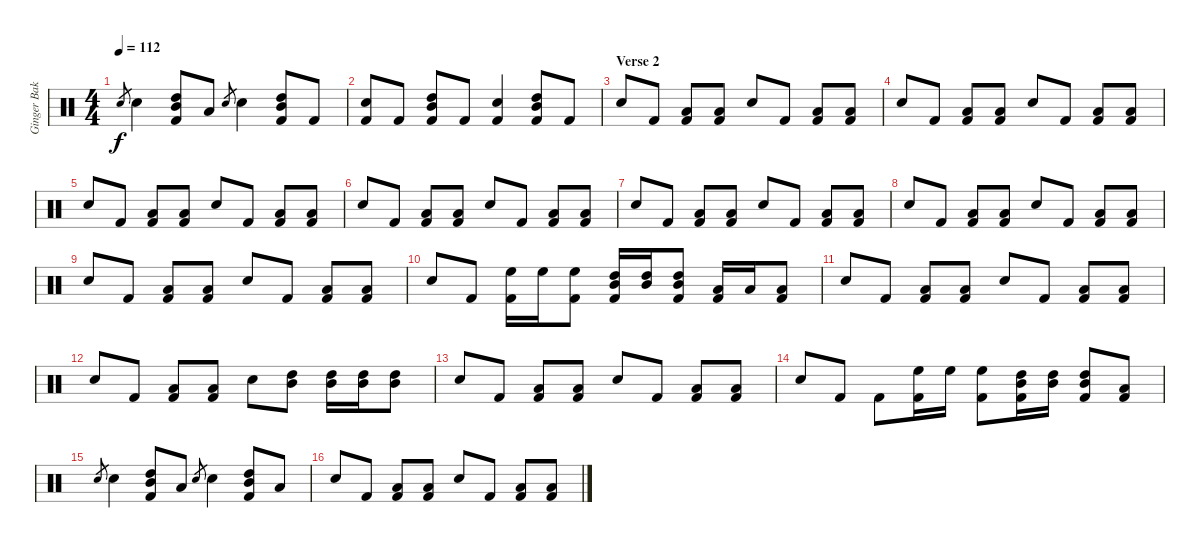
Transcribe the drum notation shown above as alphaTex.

\track ("Ginger Baker" "Ginger Bak") {instrument percussion}
\staff {score}
\articulation defaults
\ts (4 4)
\tempo 112
\clef neutral
\ks c "Snare (hit) 2".8{gr dy f} "Snare (hit) 2".4
("High Tom (hit)" "Mid Tom (hit)" "Kick (hit) 2").8 "Low Tom (hit)".8 "Snare (hit) 2".8{gr} "Snare (hit) 2".4 ("High Tom (hit)" "Mid Tom (hit)" "Kick (hit) 2").8 "Kick (hit) 2".8 |
("Snare (hit) 2" "Kick (hit) 2").8 "Kick (hit) 2".8 ("High Tom (hit)" "Mid Tom (hit)" "Kick (hit) 2").8 "Kick (hit) 2".8 ("Snare (hit) 2" "Kick (hit) 2").4 ("High Tom (hit)" "Mid Tom (hit)" "Kick (hit) 2").8 "Kick (hit) 2".8 |
\section ("" "Verse 2")
"Snare (hit) 2".8 "Kick (hit) 2".8 ("Low Tom (hit)" "Kick (hit) 2").8 ("Low Tom (hit)" "Kick (hit) 2").8 "Snare (hit) 2".8 "Kick (hit) 2".8 ("Low Tom (hit)" "Kick (hit) 2").8 ("Low Tom (hit)" "Kick (hit) 2").8 |
"Snare (hit) 2".8 "Kick (hit) 2".8 ("Low Tom (hit)" "Kick (hit) 2").8 ("Low Tom (hit)" "Kick (hit) 2").8 "Snare (hit) 2".8 "Kick (hit) 2".8 ("Low Tom (hit)" "Kick (hit) 2").8 ("Low Tom (hit)" "Kick (hit) 2").8 |
"Snare (hit) 2".8 "Kick (hit) 2".8 ("Low Tom (hit)" "Kick (hit) 2").8 ("Low Tom (hit)" "Kick (hit) 2").8 "Snare (hit) 2".8 "Kick (hit) 2".8 ("Low Tom (hit)" "Kick (hit) 2").8 ("Low Tom (hit)" "Kick (hit) 2").8 |
"Snare (hit) 2".8 "Kick (hit) 2".8 ("Low Tom (hit)" "Kick (hit) 2").8 ("Low Tom (hit)" "Kick (hit) 2").8 "Snare (hit) 2".8 "Kick (hit) 2".8 ("Low Tom (hit)" "Kick (hit) 2").8 ("Low Tom (hit)" "Kick (hit) 2").8 |
"Snare (hit) 2".8 "Kick (hit) 2".8 ("Low Tom (hit)" "Kick (hit) 2").8 ("Low Tom (hit)" "Kick (hit) 2").8 "Snare (hit) 2".8 "Kick (hit) 2".8 ("Low Tom (hit)" "Kick (hit) 2").8 ("Low Tom (hit)" "Kick (hit) 2").8 |
"Snare (hit) 2".8 "Kick (hit) 2".8 ("Low Tom (hit)" "Kick (hit) 2").8 ("Low Tom (hit)" "Kick (hit) 2").8 "Snare (hit) 2".8 "Kick (hit) 2".8 ("Low Tom (hit)" "Kick (hit) 2").8 ("Low Tom (hit)" "Kick (hit) 2").8 |
"Snare (hit) 2".8 "Kick (hit) 2".8 ("Low Tom (hit)" "Kick (hit) 2").8 ("Low Tom (hit)" "Kick (hit) 2").8 "Snare (hit) 2".8 "Kick (hit) 2".8 ("Low Tom (hit)" "Kick (hit) 2").8 ("Low Tom (hit)" "Kick (hit) 2").8 |
"Snare (hit) 2".8 "Kick (hit) 2".8 ("High Floor Tom (hit)" "Kick (hit) 2").16 "High Floor Tom (hit)".16 ("High Floor Tom (hit)" "Kick (hit) 2").8 ("High Tom (hit)" "Mid Tom (hit)" "Kick (hit) 2").16 ("High Tom (hit)" "Mid Tom (hit)").16 ("High Tom (hit)" "Mid Tom (hit)" "Kick (hit) 2").8 ("Low Tom (hit)" "Kick (hit) 2").16 "Low Tom (hit)".16 ("Low Tom (hit)" "Kick (hit) 2").8 |
"Snare (hit) 2".8 "Kick (hit) 2".8 ("Low Tom (hit)" "Kick (hit) 2").8 ("Low Tom (hit)" "Kick (hit) 2").8 "Snare (hit) 2".8 "Kick (hit) 2".8 ("Low Tom (hit)" "Kick (hit) 2").8 ("Low Tom (hit)" "Kick (hit) 2").8 |
"Snare (hit) 2".8 "Kick (hit) 2".8 ("Low Tom (hit)" "Kick (hit) 2").8 ("Low Tom (hit)" "Kick (hit) 2").8 "Snare (hit) 2".8 ("High Tom (hit)" "Mid Tom (hit)").8 ("High Tom (hit)" "Mid Tom (hit)").16 ("High Tom (hit)" "Mid Tom (hit)").16 ("High Tom (hit)" "Mid Tom (hit)").8 |
"Snare (hit) 2".8 "Kick (hit) 2".8 ("Low Tom (hit)" "Kick (hit) 2").8 ("Low Tom (hit)" "Kick (hit) 2").8 "Snare (hit) 2".8 "Kick (hit) 2".8 ("Low Tom (hit)" "Kick (hit) 2").8 ("Low Tom (hit)" "Kick (hit) 2").8 |
"Snare (hit) 2".8 "Kick (hit) 2".8 "Kick (hit) 2".8 ("High Floor Tom (hit)" "Kick (hit) 2").16 "High Floor Tom (hit)".16 ("High Floor Tom (hit)" "Kick (hit) 2").8 ("High Tom (hit)" "Mid Tom (hit)" "Kick (hit) 2").16 ("High Tom (hit)" "Mid Tom (hit)").16 ("High Tom (hit)" "Mid Tom (hit)" "Kick (hit) 2").8 ("Low Tom (hit)" "Kick (hit) 2").8 |
"Snare (hit) 2".8{gr} "Snare (hit) 2".4 ("High Tom (hit)" "Mid Tom (hit)" "Kick (hit) 2").8 "Low Tom (hit)".8 "Snare (hit) 2".8{gr} "Snare (hit) 2".4 ("High Tom (hit)" "Mid Tom (hit)" "Kick (hit) 2").8 "Low Tom (hit)".8 |
"Snare (hit) 2".8 "Kick (hit) 2".8 ("Low Tom (hit)" "Kick (hit) 2").8 ("Low Tom (hit)" "Kick (hit) 2").8 "Snare (hit) 2".8 "Kick (hit) 2".8 ("Low Tom (hit)" "Kick (hit) 2").8 ("Low Tom (hit)" "Kick (hit) 2").8
